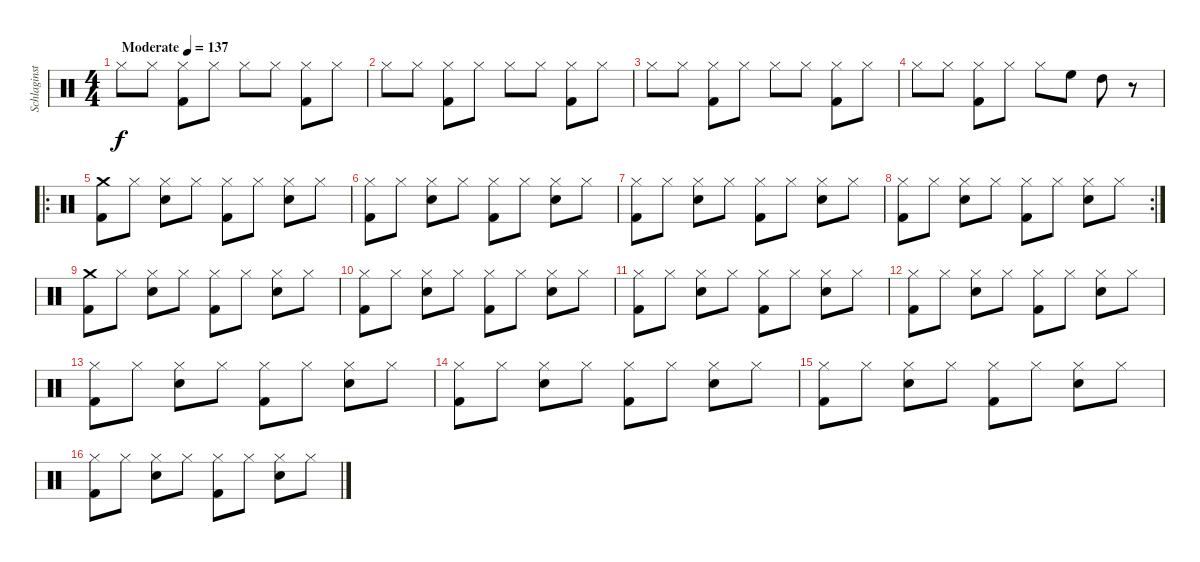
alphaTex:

\track ("Schlaginstrumente - Auswahl" "Schlaginst") {instrument percussion}
\staff {score}
\articulation defaults
\ts (4 4)
\tempo (137 "Moderate")
\clef neutral
\ks c "Hi-Hat (closed)".8{dy f} "Hi-Hat (closed)".8
("Hi-Hat (closed)" "Kick (hit) 2").8 "Hi-Hat (closed)".8 "Hi-Hat (closed)".8 "Hi-Hat (closed)".8 ("Hi-Hat (closed)" "Kick (hit) 2").8 "Hi-Hat (closed)".8 |
"Hi-Hat (closed)".8 "Hi-Hat (closed)".8 ("Hi-Hat (closed)" "Kick (hit) 2").8 "Hi-Hat (closed)".8 "Hi-Hat (closed)".8 "Hi-Hat (closed)".8 ("Hi-Hat (closed)" "Kick (hit) 2").8 "Hi-Hat (closed)".8 |
"Hi-Hat (closed)".8 "Hi-Hat (closed)".8 ("Hi-Hat (closed)" "Kick (hit) 2").8 "Hi-Hat (closed)".8 "Hi-Hat (closed)".8 "Hi-Hat (closed)".8 ("Hi-Hat (closed)" "Kick (hit) 2").8 "Hi-Hat (closed)".8 |
"Hi-Hat (closed)".8 "Hi-Hat (closed)".8 ("Hi-Hat (closed)" "Kick (hit) 2").8 "Hi-Hat (closed)".8 "Hi-Hat (closed)".8 "High Floor Tom (hit)".8 "High Tom (hit)".8 r.8 |
\ro
("Crash medium (hit)" "Kick (hit) 2").8 "Hi-Hat (closed)".8 ("Hi-Hat (closed)" "Electric Snare (hit)").8 "Hi-Hat (closed)".8 ("Hi-Hat (closed)" "Kick (hit) 2").8 "Hi-Hat (closed)".8 ("Hi-Hat (closed)" "Electric Snare (hit)").8 "Hi-Hat (closed)".8 |
("Hi-Hat (closed)" "Kick (hit) 2").8 "Hi-Hat (closed)".8 ("Hi-Hat (closed)" "Electric Snare (hit)").8 "Hi-Hat (closed)".8 ("Hi-Hat (closed)" "Kick (hit) 2").8 "Hi-Hat (closed)".8 ("Hi-Hat (closed)" "Electric Snare (hit)").8 "Hi-Hat (closed)".8 |
("Hi-Hat (closed)" "Kick (hit) 2").8 "Hi-Hat (closed)".8 ("Hi-Hat (closed)" "Electric Snare (hit)").8 "Hi-Hat (closed)".8 ("Hi-Hat (closed)" "Kick (hit) 2").8 "Hi-Hat (closed)".8 ("Hi-Hat (closed)" "Electric Snare (hit)").8 "Hi-Hat (closed)".8 |
\rc 2
("Hi-Hat (closed)" "Kick (hit) 2").8 "Hi-Hat (closed)".8 ("Hi-Hat (closed)" "Electric Snare (hit)").8 "Hi-Hat (closed)".8 ("Hi-Hat (closed)" "Kick (hit) 2").8 "Hi-Hat (closed)".8 ("Hi-Hat (closed)" "Electric Snare (hit)").8 "Hi-Hat (closed)".8 |
("Crash medium (hit)" "Kick (hit) 2").8 "Hi-Hat (closed)".8 ("Hi-Hat (closed)" "Electric Snare (hit)").8 "Hi-Hat (closed)".8 ("Hi-Hat (closed)" "Kick (hit) 2").8 "Hi-Hat (closed)".8 ("Hi-Hat (closed)" "Electric Snare (hit)").8 "Hi-Hat (closed)".8 |
("Hi-Hat (closed)" "Kick (hit) 2").8 "Hi-Hat (closed)".8 ("Hi-Hat (closed)" "Electric Snare (hit)").8 "Hi-Hat (closed)".8 ("Hi-Hat (closed)" "Kick (hit) 2").8 "Hi-Hat (closed)".8 ("Hi-Hat (closed)" "Electric Snare (hit)").8 "Hi-Hat (closed)".8 |
("Hi-Hat (closed)" "Kick (hit) 2").8 "Hi-Hat (closed)".8 ("Hi-Hat (closed)" "Electric Snare (hit)").8 "Hi-Hat (closed)".8 ("Hi-Hat (closed)" "Kick (hit) 2").8 "Hi-Hat (closed)".8 ("Hi-Hat (closed)" "Electric Snare (hit)").8 "Hi-Hat (closed)".8 |
("Hi-Hat (closed)" "Kick (hit) 2").8 "Hi-Hat (closed)".8 ("Hi-Hat (closed)" "Electric Snare (hit)").8 "Hi-Hat (closed)".8 ("Hi-Hat (closed)" "Kick (hit) 2").8 "Hi-Hat (closed)".8 ("Hi-Hat (closed)" "Electric Snare (hit)").8 "Hi-Hat (closed)".8 |
("Hi-Hat (closed)" "Kick (hit) 2").8 "Hi-Hat (closed)".8 ("Hi-Hat (closed)" "Electric Snare (hit)").8 "Hi-Hat (closed)".8 ("Hi-Hat (closed)" "Kick (hit) 2").8 "Hi-Hat (closed)".8 ("Hi-Hat (closed)" "Electric Snare (hit)").8 "Hi-Hat (closed)".8 |
("Hi-Hat (closed)" "Kick (hit) 2").8 "Hi-Hat (closed)".8 ("Hi-Hat (closed)" "Electric Snare (hit)").8 "Hi-Hat (closed)".8 ("Hi-Hat (closed)" "Kick (hit) 2").8 "Hi-Hat (closed)".8 ("Hi-Hat (closed)" "Electric Snare (hit)").8 "Hi-Hat (closed)".8 |
("Hi-Hat (closed)" "Kick (hit) 2").8 "Hi-Hat (closed)".8 ("Hi-Hat (closed)" "Electric Snare (hit)").8 "Hi-Hat (closed)".8 ("Hi-Hat (closed)" "Kick (hit) 2").8 "Hi-Hat (closed)".8 ("Hi-Hat (closed)" "Electric Snare (hit)").8 "Hi-Hat (closed)".8 |
("Hi-Hat (closed)" "Kick (hit) 2").8 "Hi-Hat (closed)".8 ("Hi-Hat (closed)" "Electric Snare (hit)").8 "Hi-Hat (closed)".8 ("Hi-Hat (closed)" "Kick (hit) 2").8 "Hi-Hat (closed)".8 ("Hi-Hat (closed)" "Electric Snare (hit)").8 "Hi-Hat (closed)".8
